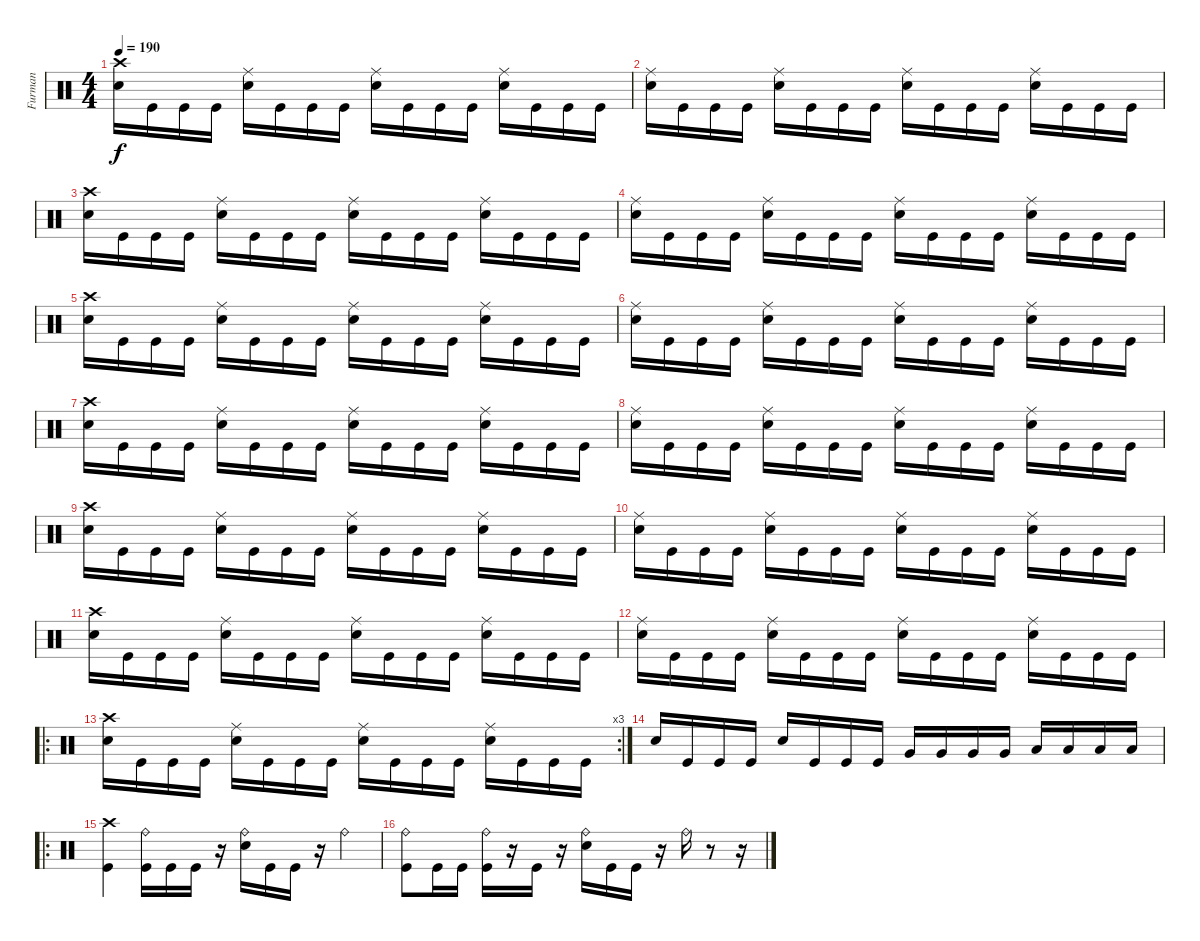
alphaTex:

\track ("Furman" "Furman") {instrument percussion}
\staff {score}
\articulation defaults
\ts (4 4)
\tempo 190
\clef neutral
\ks c
("Crash high (hit)" "Electric Snare (hit)").16{dy f} "Kick (hit)".16 "Kick (hit)".16 "Kick (hit)".16 ("Ride (middle)" "Electric Snare (hit)").16 "Kick (hit)".16 "Kick (hit)".16 "Kick (hit)".16 ("Ride (middle)" "Electric Snare (hit)").16 "Kick (hit)".16 "Kick (hit)".16 "Kick (hit)".16 ("Ride (middle)" "Electric Snare (hit)").16 "Kick (hit)".16 "Kick (hit)".16 "Kick (hit)".16 |
("Ride (middle)" "Electric Snare (hit)").16 "Kick (hit)".16 "Kick (hit)".16 "Kick (hit)".16 ("Ride (middle)" "Electric Snare (hit)").16 "Kick (hit)".16 "Kick (hit)".16 "Kick (hit)".16 ("Ride (middle)" "Electric Snare (hit)").16 "Kick (hit)".16 "Kick (hit)".16 "Kick (hit)".16 ("Ride (middle)" "Electric Snare (hit)").16 "Kick (hit)".16 "Kick (hit)".16 "Kick (hit)".16 |
("Crash high (hit)" "Electric Snare (hit)").16 "Kick (hit)".16 "Kick (hit)".16 "Kick (hit)".16 ("Ride (middle)" "Electric Snare (hit)").16 "Kick (hit)".16 "Kick (hit)".16 "Kick (hit)".16 ("Ride (middle)" "Electric Snare (hit)").16 "Kick (hit)".16 "Kick (hit)".16 "Kick (hit)".16 ("Ride (middle)" "Electric Snare (hit)").16 "Kick (hit)".16 "Kick (hit)".16 "Kick (hit)".16 |
("Ride (middle)" "Electric Snare (hit)").16 "Kick (hit)".16 "Kick (hit)".16 "Kick (hit)".16 ("Ride (middle)" "Electric Snare (hit)").16 "Kick (hit)".16 "Kick (hit)".16 "Kick (hit)".16 ("Ride (middle)" "Electric Snare (hit)").16 "Kick (hit)".16 "Kick (hit)".16 "Kick (hit)".16 ("Ride (middle)" "Electric Snare (hit)").16 "Kick (hit)".16 "Kick (hit)".16 "Kick (hit)".16 |
("Crash high (hit)" "Electric Snare (hit)").16 "Kick (hit)".16 "Kick (hit)".16 "Kick (hit)".16 ("Ride (middle)" "Electric Snare (hit)").16 "Kick (hit)".16 "Kick (hit)".16 "Kick (hit)".16 ("Ride (middle)" "Electric Snare (hit)").16 "Kick (hit)".16 "Kick (hit)".16 "Kick (hit)".16 ("Ride (middle)" "Electric Snare (hit)").16 "Kick (hit)".16 "Kick (hit)".16 "Kick (hit)".16 |
("Ride (middle)" "Electric Snare (hit)").16 "Kick (hit)".16 "Kick (hit)".16 "Kick (hit)".16 ("Ride (middle)" "Electric Snare (hit)").16 "Kick (hit)".16 "Kick (hit)".16 "Kick (hit)".16 ("Ride (middle)" "Electric Snare (hit)").16 "Kick (hit)".16 "Kick (hit)".16 "Kick (hit)".16 ("Ride (middle)" "Electric Snare (hit)").16 "Kick (hit)".16 "Kick (hit)".16 "Kick (hit)".16 |
("Crash high (hit)" "Electric Snare (hit)").16 "Kick (hit)".16 "Kick (hit)".16 "Kick (hit)".16 ("Ride (middle)" "Electric Snare (hit)").16 "Kick (hit)".16 "Kick (hit)".16 "Kick (hit)".16 ("Ride (middle)" "Electric Snare (hit)").16 "Kick (hit)".16 "Kick (hit)".16 "Kick (hit)".16 ("Ride (middle)" "Electric Snare (hit)").16 "Kick (hit)".16 "Kick (hit)".16 "Kick (hit)".16 |
("Ride (middle)" "Electric Snare (hit)").16 "Kick (hit)".16 "Kick (hit)".16 "Kick (hit)".16 ("Ride (middle)" "Electric Snare (hit)").16 "Kick (hit)".16 "Kick (hit)".16 "Kick (hit)".16 ("Ride (middle)" "Electric Snare (hit)").16 "Kick (hit)".16 "Kick (hit)".16 "Kick (hit)".16 ("Ride (middle)" "Electric Snare (hit)").16 "Kick (hit)".16 "Kick (hit)".16 "Kick (hit)".16 |
("Crash high (hit)" "Electric Snare (hit)").16 "Kick (hit)".16 "Kick (hit)".16 "Kick (hit)".16 ("Ride (middle)" "Electric Snare (hit)").16 "Kick (hit)".16 "Kick (hit)".16 "Kick (hit)".16 ("Ride (middle)" "Electric Snare (hit)").16 "Kick (hit)".16 "Kick (hit)".16 "Kick (hit)".16 ("Ride (middle)" "Electric Snare (hit)").16 "Kick (hit)".16 "Kick (hit)".16 "Kick (hit)".16 |
("Ride (middle)" "Electric Snare (hit)").16 "Kick (hit)".16 "Kick (hit)".16 "Kick (hit)".16 ("Ride (middle)" "Electric Snare (hit)").16 "Kick (hit)".16 "Kick (hit)".16 "Kick (hit)".16 ("Ride (middle)" "Electric Snare (hit)").16 "Kick (hit)".16 "Kick (hit)".16 "Kick (hit)".16 ("Ride (middle)" "Electric Snare (hit)").16 "Kick (hit)".16 "Kick (hit)".16 "Kick (hit)".16 |
("Crash high (hit)" "Electric Snare (hit)").16 "Kick (hit)".16 "Kick (hit)".16 "Kick (hit)".16 ("Ride (middle)" "Electric Snare (hit)").16 "Kick (hit)".16 "Kick (hit)".16 "Kick (hit)".16 ("Ride (middle)" "Electric Snare (hit)").16 "Kick (hit)".16 "Kick (hit)".16 "Kick (hit)".16 ("Ride (middle)" "Electric Snare (hit)").16 "Kick (hit)".16 "Kick (hit)".16 "Kick (hit)".16 |
("Ride (middle)" "Electric Snare (hit)").16 "Kick (hit)".16 "Kick (hit)".16 "Kick (hit)".16 ("Ride (middle)" "Electric Snare (hit)").16 "Kick (hit)".16 "Kick (hit)".16 "Kick (hit)".16 ("Ride (middle)" "Electric Snare (hit)").16 "Kick (hit)".16 "Kick (hit)".16 "Kick (hit)".16 ("Ride (middle)" "Electric Snare (hit)").16 "Kick (hit)".16 "Kick (hit)".16 "Kick (hit)".16 |
\ro
\rc 3
("Crash high (hit)" "Electric Snare (hit)").16 "Kick (hit)".16 "Kick (hit)".16 "Kick (hit)".16 ("Ride (middle)" "Electric Snare (hit)").16 "Kick (hit)".16 "Kick (hit)".16 "Kick (hit)".16 ("Ride (middle)" "Electric Snare (hit)").16 "Kick (hit)".16 "Kick (hit)".16 "Kick (hit)".16 ("Ride (middle)" "Electric Snare (hit)").16 "Kick (hit)".16 "Kick (hit)".16 "Kick (hit)".16 |
"Electric Snare (hit)".16 "Kick (hit)".16 "Kick (hit)".16 "Kick (hit)".16 "Electric Snare (hit)".16 "Kick (hit)".16 "Kick (hit)".16 "Kick (hit)".16 "Very Low Tom (hit)".16 "Very Low Tom (hit)".16 "Very Low Tom (hit)".16 "Very Low Tom (hit)".16 "Low Floor Tom (hit)".16 "Low Floor Tom (hit)".16 "Low Floor Tom (hit)".16 "Low Floor Tom (hit)".16 |
\ro
("Crash high (hit)" "Kick (hit)").4 ("Ride (bell)" "Kick (hit)").16 "Kick (hit)".16 "Kick (hit)".16 r.16 ("Ride (bell)" "Electric Snare (hit)").16 "Kick (hit)".16 "Kick (hit)".16 r.16 "Ride (bell)".4 |
("Ride (bell)" "Kick (hit)").8 "Kick (hit)".16 "Kick (hit)".16 ("Ride (bell)" "Kick (hit)").16 r.16 "Kick (hit)".16 r.16 ("Ride (bell)" "Electric Snare (hit)").16 "Kick (hit)".16 "Kick (hit)".16 r.16 "Ride (bell)".16 r.8 r.16
